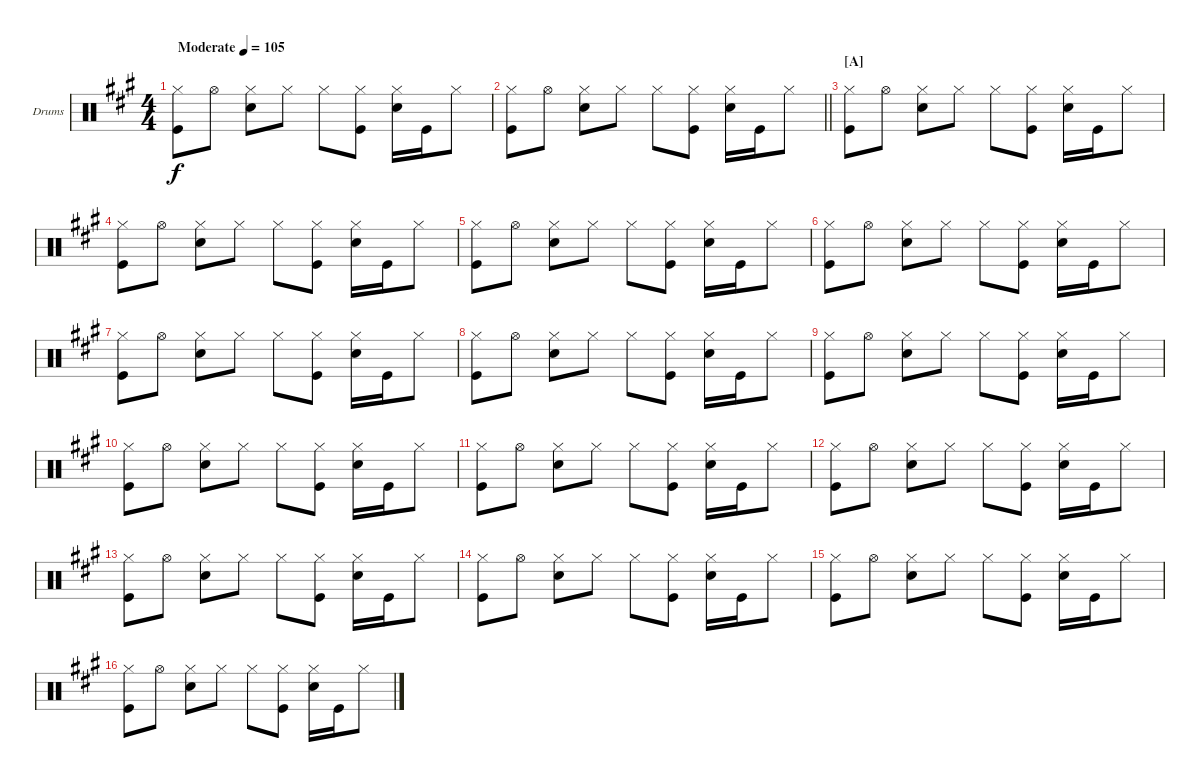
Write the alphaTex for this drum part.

\bracketExtendMode groupsimilarinstruments
\firstSystemTrackNameOrientation horizontal
\otherSystemsTrackNameOrientation horizontal
\track ("Fabrizio Moretti" "Drums") {instrument percussion}
\staff {score}
\articulation defaults
\ts (4 4)
\beaming (8 2 2 2 2)
\tempo (105 "Moderate")
\clef neutral
\ks a
("Hi-Hat (closed)" "Kick (hit)").8{dy f} "Hi-Hat (open)".8 ("Hi-Hat (closed)" "Snare (hit) 2").8 "Hi-Hat (closed)".8 "Hi-Hat (closed)".8 ("Hi-Hat (closed)" "Kick (hit)").8 ("Hi-Hat (closed)" "Snare (hit) 2").16 "Kick (hit)".16 "Hi-Hat (closed)".8 |
\barLineRight lightlight
("Hi-Hat (closed)" "Kick (hit)").8 "Hi-Hat (open)".8 ("Hi-Hat (closed)" "Snare (hit) 2").8 "Hi-Hat (closed)".8 "Hi-Hat (closed)".8 ("Hi-Hat (closed)" "Kick (hit)").8 ("Hi-Hat (closed)" "Snare (hit) 2").16 "Kick (hit)".16 "Hi-Hat (closed)".8 |
\section ("A" "")
("Hi-Hat (closed)" "Kick (hit)").8 "Hi-Hat (open)".8 ("Hi-Hat (closed)" "Snare (hit) 2").8 "Hi-Hat (closed)".8 "Hi-Hat (closed)".8 ("Hi-Hat (closed)" "Kick (hit)").8 ("Hi-Hat (closed)" "Snare (hit) 2").16 "Kick (hit)".16 "Hi-Hat (closed)".8 |
("Hi-Hat (closed)" "Kick (hit)").8 "Hi-Hat (open)".8 ("Hi-Hat (closed)" "Snare (hit) 2").8 "Hi-Hat (closed)".8 "Hi-Hat (closed)".8 ("Hi-Hat (closed)" "Kick (hit)").8 ("Hi-Hat (closed)" "Snare (hit) 2").16 "Kick (hit)".16 "Hi-Hat (closed)".8 |
("Hi-Hat (closed)" "Kick (hit)").8 "Hi-Hat (open)".8 ("Hi-Hat (closed)" "Snare (hit) 2").8 "Hi-Hat (closed)".8 "Hi-Hat (closed)".8 ("Hi-Hat (closed)" "Kick (hit)").8 ("Hi-Hat (closed)" "Snare (hit) 2").16 "Kick (hit)".16 "Hi-Hat (closed)".8 |
("Hi-Hat (closed)" "Kick (hit)").8 "Hi-Hat (open)".8 ("Hi-Hat (closed)" "Snare (hit) 2").8 "Hi-Hat (closed)".8 "Hi-Hat (closed)".8 ("Hi-Hat (closed)" "Kick (hit)").8 ("Hi-Hat (closed)" "Snare (hit) 2").16 "Kick (hit)".16 "Hi-Hat (closed)".8 |
("Hi-Hat (closed)" "Kick (hit)").8 "Hi-Hat (open)".8 ("Hi-Hat (closed)" "Snare (hit) 2").8 "Hi-Hat (closed)".8 "Hi-Hat (closed)".8 ("Hi-Hat (closed)" "Kick (hit)").8 ("Hi-Hat (closed)" "Snare (hit) 2").16 "Kick (hit)".16 "Hi-Hat (closed)".8 |
("Hi-Hat (closed)" "Kick (hit)").8 "Hi-Hat (open)".8 ("Hi-Hat (closed)" "Snare (hit) 2").8 "Hi-Hat (closed)".8 "Hi-Hat (closed)".8 ("Hi-Hat (closed)" "Kick (hit)").8 ("Hi-Hat (closed)" "Snare (hit) 2").16 "Kick (hit)".16 "Hi-Hat (closed)".8 |
("Hi-Hat (closed)" "Kick (hit)").8 "Hi-Hat (open)".8 ("Hi-Hat (closed)" "Snare (hit) 2").8 "Hi-Hat (closed)".8 "Hi-Hat (closed)".8 ("Hi-Hat (closed)" "Kick (hit)").8 ("Hi-Hat (closed)" "Snare (hit) 2").16 "Kick (hit)".16 "Hi-Hat (closed)".8 |
("Hi-Hat (closed)" "Kick (hit)").8 "Hi-Hat (open)".8 ("Hi-Hat (closed)" "Snare (hit) 2").8 "Hi-Hat (closed)".8 "Hi-Hat (closed)".8 ("Hi-Hat (closed)" "Kick (hit)").8 ("Hi-Hat (closed)" "Snare (hit) 2").16 "Kick (hit)".16 "Hi-Hat (closed)".8 |
("Hi-Hat (closed)" "Kick (hit)").8 "Hi-Hat (open)".8 ("Hi-Hat (closed)" "Snare (hit) 2").8 "Hi-Hat (closed)".8 "Hi-Hat (closed)".8 ("Hi-Hat (closed)" "Kick (hit)").8 ("Hi-Hat (closed)" "Snare (hit) 2").16 "Kick (hit)".16 "Hi-Hat (closed)".8 |
("Hi-Hat (closed)" "Kick (hit)").8 "Hi-Hat (open)".8 ("Hi-Hat (closed)" "Snare (hit) 2").8 "Hi-Hat (closed)".8 "Hi-Hat (closed)".8 ("Hi-Hat (closed)" "Kick (hit)").8 ("Hi-Hat (closed)" "Snare (hit) 2").16 "Kick (hit)".16 "Hi-Hat (closed)".8 |
("Hi-Hat (closed)" "Kick (hit)").8 "Hi-Hat (open)".8 ("Hi-Hat (closed)" "Snare (hit) 2").8 "Hi-Hat (closed)".8 "Hi-Hat (closed)".8 ("Hi-Hat (closed)" "Kick (hit)").8 ("Hi-Hat (closed)" "Snare (hit) 2").16 "Kick (hit)".16 "Hi-Hat (closed)".8 |
("Hi-Hat (closed)" "Kick (hit)").8 "Hi-Hat (open)".8 ("Hi-Hat (closed)" "Snare (hit) 2").8 "Hi-Hat (closed)".8 "Hi-Hat (closed)".8 ("Hi-Hat (closed)" "Kick (hit)").8 ("Hi-Hat (closed)" "Snare (hit) 2").16 "Kick (hit)".16 "Hi-Hat (closed)".8 |
("Hi-Hat (closed)" "Kick (hit)").8 "Hi-Hat (open)".8 ("Hi-Hat (closed)" "Snare (hit) 2").8 "Hi-Hat (closed)".8 "Hi-Hat (closed)".8 ("Hi-Hat (closed)" "Kick (hit)").8 ("Hi-Hat (closed)" "Snare (hit) 2").16 "Kick (hit)".16 "Hi-Hat (closed)".8 |
("Hi-Hat (closed)" "Kick (hit)").8 "Hi-Hat (open)".8 ("Hi-Hat (closed)" "Snare (hit) 2").8 "Hi-Hat (closed)".8 "Hi-Hat (closed)".8 ("Hi-Hat (closed)" "Kick (hit)").8 ("Hi-Hat (closed)" "Snare (hit) 2").16 "Kick (hit)".16 "Hi-Hat (closed)".8
